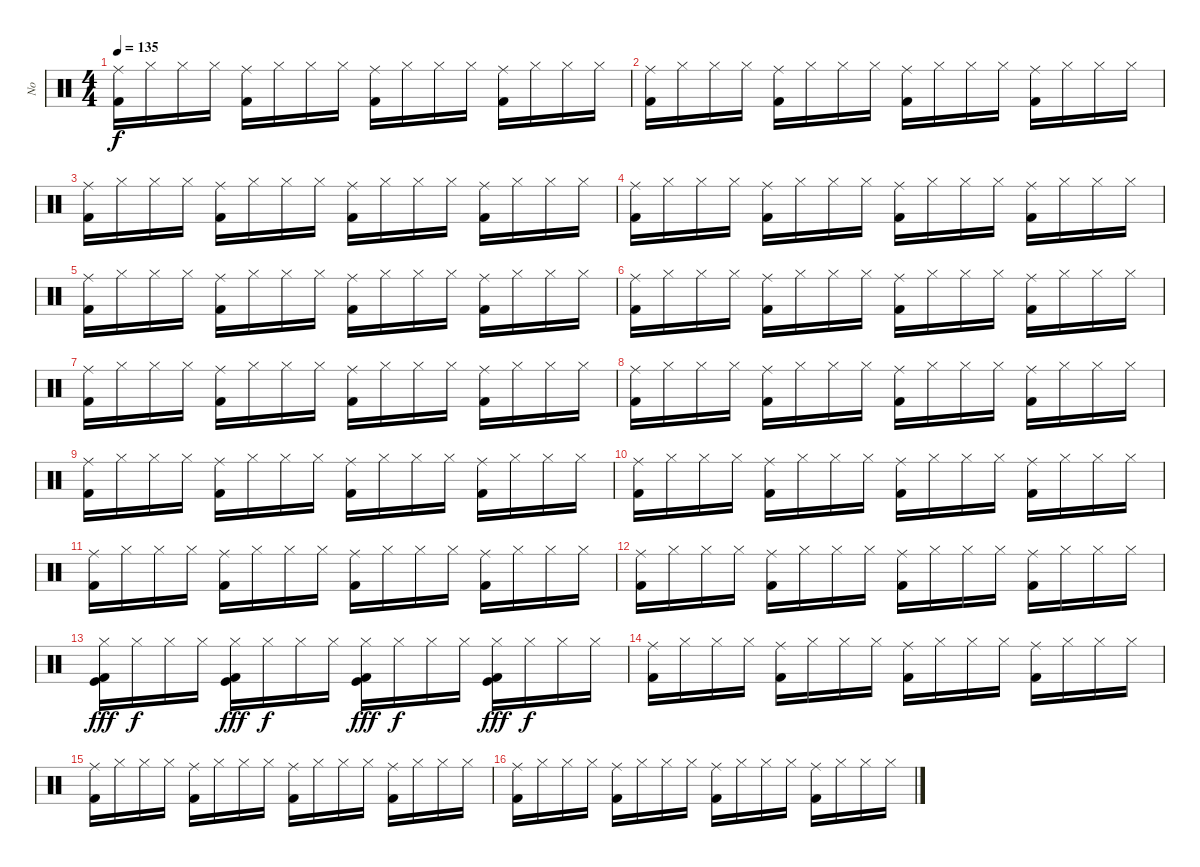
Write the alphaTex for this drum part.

\track ("No" "No") {instrument percussion}
\staff {score}
\articulation defaults
\ts (4 4)
\tempo 135
\clef neutral
\ks c
("Kick (hit) 2" "Ride (middle)").16{dy f} "Hi-Hat (closed)".16 "Hi-Hat (closed)".16 "Hi-Hat (closed)".16 ("Kick (hit) 2" "Ride (middle)").16 "Hi-Hat (closed)".16 "Hi-Hat (closed)".16 "Hi-Hat (closed)".16 ("Kick (hit) 2" "Ride (middle)").16 "Hi-Hat (closed)".16 "Hi-Hat (closed)".16 "Hi-Hat (closed)".16 ("Kick (hit) 2" "Ride (middle)").16 "Hi-Hat (closed)".16 "Hi-Hat (closed)".16 "Hi-Hat (closed)".16 |
("Kick (hit) 2" "Ride (middle)").16 "Hi-Hat (closed)".16 "Hi-Hat (closed)".16 "Hi-Hat (closed)".16 ("Kick (hit) 2" "Ride (middle)").16 "Hi-Hat (closed)".16 "Hi-Hat (closed)".16 "Hi-Hat (closed)".16 ("Kick (hit) 2" "Ride (middle)").16 "Hi-Hat (closed)".16 "Hi-Hat (closed)".16 "Hi-Hat (closed)".16 ("Kick (hit) 2" "Ride (middle)").16 "Hi-Hat (closed)".16 "Hi-Hat (closed)".16 "Hi-Hat (closed)".16 |
("Kick (hit) 2" "Ride (middle)").16 "Hi-Hat (closed)".16 "Hi-Hat (closed)".16 "Hi-Hat (closed)".16 ("Kick (hit) 2" "Ride (middle)").16 "Hi-Hat (closed)".16 "Hi-Hat (closed)".16 "Hi-Hat (closed)".16 ("Kick (hit) 2" "Ride (middle)").16 "Hi-Hat (closed)".16 "Hi-Hat (closed)".16 "Hi-Hat (closed)".16 ("Kick (hit) 2" "Ride (middle)").16 "Hi-Hat (closed)".16 "Hi-Hat (closed)".16 "Hi-Hat (closed)".16 |
("Kick (hit) 2" "Ride (middle)").16 "Hi-Hat (closed)".16 "Hi-Hat (closed)".16 "Hi-Hat (closed)".16 ("Kick (hit) 2" "Ride (middle)").16 "Hi-Hat (closed)".16 "Hi-Hat (closed)".16 "Hi-Hat (closed)".16 ("Kick (hit) 2" "Ride (middle)").16 "Hi-Hat (closed)".16 "Hi-Hat (closed)".16 "Hi-Hat (closed)".16 ("Kick (hit) 2" "Ride (middle)").16 "Hi-Hat (closed)".16 "Hi-Hat (closed)".16 "Hi-Hat (closed)".16 |
("Kick (hit) 2" "Ride (middle)").16 "Hi-Hat (closed)".16 "Hi-Hat (closed)".16 "Hi-Hat (closed)".16 ("Kick (hit) 2" "Ride (middle)").16 "Hi-Hat (closed)".16 "Hi-Hat (closed)".16 "Hi-Hat (closed)".16 ("Kick (hit) 2" "Ride (middle)").16 "Hi-Hat (closed)".16 "Hi-Hat (closed)".16 "Hi-Hat (closed)".16 ("Kick (hit) 2" "Ride (middle)").16 "Hi-Hat (closed)".16 "Hi-Hat (closed)".16 "Hi-Hat (closed)".16 |
("Kick (hit) 2" "Ride (middle)").16 "Hi-Hat (closed)".16 "Hi-Hat (closed)".16 "Hi-Hat (closed)".16 ("Kick (hit) 2" "Ride (middle)").16 "Hi-Hat (closed)".16 "Hi-Hat (closed)".16 "Hi-Hat (closed)".16 ("Kick (hit) 2" "Ride (middle)").16 "Hi-Hat (closed)".16 "Hi-Hat (closed)".16 "Hi-Hat (closed)".16 ("Kick (hit) 2" "Ride (middle)").16 "Hi-Hat (closed)".16 "Hi-Hat (closed)".16 "Hi-Hat (closed)".16 |
("Kick (hit) 2" "Ride (middle)").16 "Hi-Hat (closed)".16 "Hi-Hat (closed)".16 "Hi-Hat (closed)".16 ("Kick (hit) 2" "Ride (middle)").16 "Hi-Hat (closed)".16 "Hi-Hat (closed)".16 "Hi-Hat (closed)".16 ("Kick (hit) 2" "Ride (middle)").16 "Hi-Hat (closed)".16 "Hi-Hat (closed)".16 "Hi-Hat (closed)".16 ("Kick (hit) 2" "Ride (middle)").16 "Hi-Hat (closed)".16 "Hi-Hat (closed)".16 "Hi-Hat (closed)".16 |
("Kick (hit) 2" "Ride (middle)").16 "Hi-Hat (closed)".16 "Hi-Hat (closed)".16 "Hi-Hat (closed)".16 ("Kick (hit) 2" "Ride (middle)").16 "Hi-Hat (closed)".16 "Hi-Hat (closed)".16 "Hi-Hat (closed)".16 ("Kick (hit) 2" "Ride (middle)").16 "Hi-Hat (closed)".16 "Hi-Hat (closed)".16 "Hi-Hat (closed)".16 ("Kick (hit) 2" "Ride (middle)").16 "Hi-Hat (closed)".16 "Hi-Hat (closed)".16 "Hi-Hat (closed)".16 |
("Kick (hit) 2" "Ride (middle)").16 "Hi-Hat (closed)".16 "Hi-Hat (closed)".16 "Hi-Hat (closed)".16 ("Kick (hit) 2" "Ride (middle)").16 "Hi-Hat (closed)".16 "Hi-Hat (closed)".16 "Hi-Hat (closed)".16 ("Kick (hit) 2" "Ride (middle)").16 "Hi-Hat (closed)".16 "Hi-Hat (closed)".16 "Hi-Hat (closed)".16 ("Kick (hit) 2" "Ride (middle)").16 "Hi-Hat (closed)".16 "Hi-Hat (closed)".16 "Hi-Hat (closed)".16 |
("Kick (hit) 2" "Ride (middle)").16 "Hi-Hat (closed)".16 "Hi-Hat (closed)".16 "Hi-Hat (closed)".16 ("Kick (hit) 2" "Ride (middle)").16 "Hi-Hat (closed)".16 "Hi-Hat (closed)".16 "Hi-Hat (closed)".16 ("Kick (hit) 2" "Ride (middle)").16 "Hi-Hat (closed)".16 "Hi-Hat (closed)".16 "Hi-Hat (closed)".16 ("Kick (hit) 2" "Ride (middle)").16 "Hi-Hat (closed)".16 "Hi-Hat (closed)".16 "Hi-Hat (closed)".16 |
("Kick (hit) 2" "Ride (middle)").16 "Hi-Hat (closed)".16 "Hi-Hat (closed)".16 "Hi-Hat (closed)".16 ("Kick (hit) 2" "Ride (middle)").16 "Hi-Hat (closed)".16 "Hi-Hat (closed)".16 "Hi-Hat (closed)".16 ("Kick (hit) 2" "Ride (middle)").16 "Hi-Hat (closed)".16 "Hi-Hat (closed)".16 "Hi-Hat (closed)".16 ("Kick (hit) 2" "Ride (middle)").16 "Hi-Hat (closed)".16 "Hi-Hat (closed)".16 "Hi-Hat (closed)".16 |
("Kick (hit) 2" "Ride (middle)").16 "Hi-Hat (closed)".16 "Hi-Hat (closed)".16 "Hi-Hat (closed)".16 ("Kick (hit) 2" "Ride (middle)").16 "Hi-Hat (closed)".16 "Hi-Hat (closed)".16 "Hi-Hat (closed)".16 ("Kick (hit) 2" "Ride (middle)").16 "Hi-Hat (closed)".16 "Hi-Hat (closed)".16 "Hi-Hat (closed)".16 ("Kick (hit) 2" "Ride (middle)").16 "Hi-Hat (closed)".16 "Hi-Hat (closed)".16 "Hi-Hat (closed)".16 |
("Kick (hit) 2" "Kick (hit)" "Hi-Hat (closed)").16{dy fff} "Hi-Hat (closed)".16{dy f} "Hi-Hat (closed)".16 "Hi-Hat (closed)".16 ("Kick (hit) 2" "Kick (hit)" "Hi-Hat (closed)").16{dy fff} "Hi-Hat (closed)".16{dy f} "Hi-Hat (closed)".16 "Hi-Hat (closed)".16 ("Kick (hit) 2" "Kick (hit)" "Hi-Hat (closed)").16{dy fff} "Hi-Hat (closed)".16{dy f} "Hi-Hat (closed)".16 "Hi-Hat (closed)".16 ("Kick (hit) 2" "Kick (hit)" "Hi-Hat (closed)").16{dy fff} "Hi-Hat (closed)".16{dy f} "Hi-Hat (closed)".16 "Hi-Hat (closed)".16 |
("Kick (hit) 2" "Ride (middle)").16 "Hi-Hat (closed)".16 "Hi-Hat (closed)".16 "Hi-Hat (closed)".16 ("Kick (hit) 2" "Ride (middle)").16 "Hi-Hat (closed)".16 "Hi-Hat (closed)".16 "Hi-Hat (closed)".16 ("Kick (hit) 2" "Ride (middle)").16 "Hi-Hat (closed)".16 "Hi-Hat (closed)".16 "Hi-Hat (closed)".16 ("Kick (hit) 2" "Ride (middle)").16 "Hi-Hat (closed)".16 "Hi-Hat (closed)".16 "Hi-Hat (closed)".16 |
("Kick (hit) 2" "Ride (middle)").16 "Hi-Hat (closed)".16 "Hi-Hat (closed)".16 "Hi-Hat (closed)".16 ("Kick (hit) 2" "Ride (middle)").16 "Hi-Hat (closed)".16 "Hi-Hat (closed)".16 "Hi-Hat (closed)".16 ("Kick (hit) 2" "Ride (middle)").16 "Hi-Hat (closed)".16 "Hi-Hat (closed)".16 "Hi-Hat (closed)".16 ("Kick (hit) 2" "Ride (middle)").16 "Hi-Hat (closed)".16 "Hi-Hat (closed)".16 "Hi-Hat (closed)".16 |
("Kick (hit) 2" "Ride (middle)").16 "Hi-Hat (closed)".16 "Hi-Hat (closed)".16 "Hi-Hat (closed)".16 ("Kick (hit) 2" "Ride (middle)").16 "Hi-Hat (closed)".16 "Hi-Hat (closed)".16 "Hi-Hat (closed)".16 ("Kick (hit) 2" "Ride (middle)").16 "Hi-Hat (closed)".16 "Hi-Hat (closed)".16 "Hi-Hat (closed)".16 ("Kick (hit) 2" "Ride (middle)").16 "Hi-Hat (closed)".16 "Hi-Hat (closed)".16 "Hi-Hat (closed)".16
